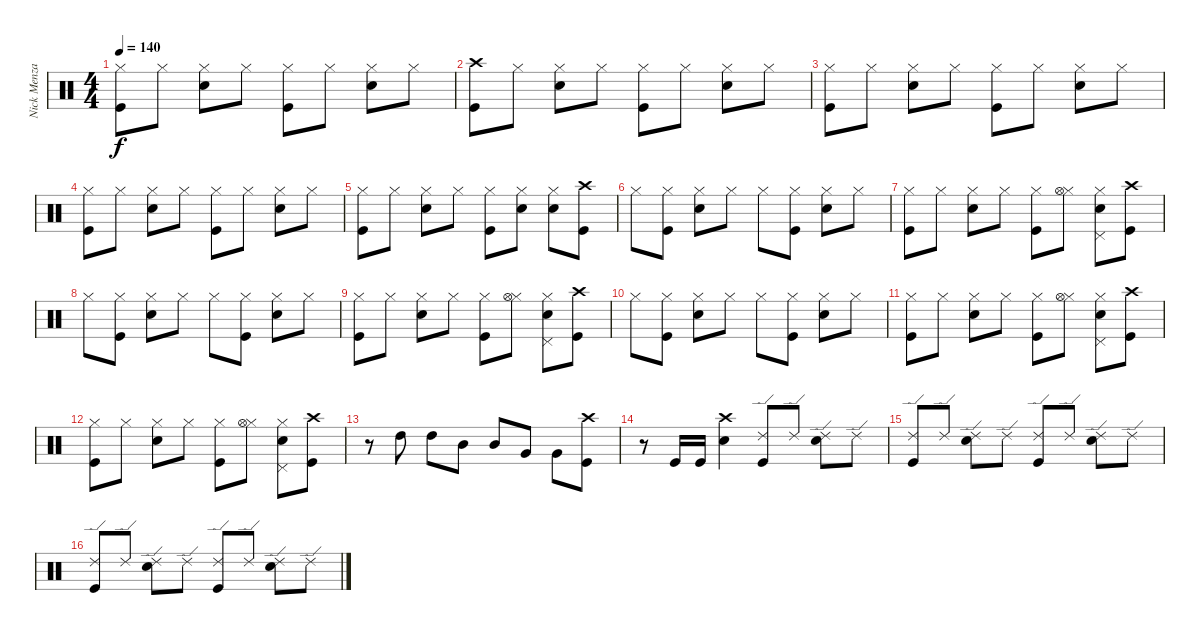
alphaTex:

\track ("Nick Menza (Drums)" "Nick Menza") {instrument percussion}
\staff {score}
\articulation defaults
\ts (4 4)
\tempo 140
\clef neutral
\ks c
("Hi-Hat (closed)" "Kick (hit)").8{dy f} "Hi-Hat (closed)".8 ("Hi-Hat (closed)" "Snare (hit) 2").8 "Hi-Hat (closed)".8 ("Hi-Hat (closed)" "Kick (hit)").8 "Hi-Hat (closed)".8 ("Hi-Hat (closed)" "Snare (hit) 2").8 "Hi-Hat (closed)".8 |
("Crash high (hit)" "Kick (hit)").8 "Hi-Hat (closed)".8 ("Hi-Hat (closed)" "Snare (hit) 2").8 "Hi-Hat (closed)".8 ("Hi-Hat (closed)" "Kick (hit)").8 "Hi-Hat (closed)".8 ("Hi-Hat (closed)" "Snare (hit) 2").8 "Hi-Hat (closed)".8 |
("Hi-Hat (closed)" "Kick (hit)").8 "Hi-Hat (closed)".8 ("Hi-Hat (closed)" "Snare (hit) 2").8 "Hi-Hat (closed)".8 ("Hi-Hat (closed)" "Kick (hit)").8 "Hi-Hat (closed)".8 ("Hi-Hat (closed)" "Snare (hit) 2").8 "Hi-Hat (closed)".8 |
("Hi-Hat (closed)" "Kick (hit)").8 "Hi-Hat (closed)".8 ("Hi-Hat (closed)" "Snare (hit) 2").8 "Hi-Hat (closed)".8 ("Hi-Hat (closed)" "Kick (hit)").8 "Hi-Hat (closed)".8 ("Hi-Hat (closed)" "Snare (hit) 2").8 "Hi-Hat (closed)".8 |
("Hi-Hat (closed)" "Kick (hit)").8 "Hi-Hat (closed)".8 ("Hi-Hat (closed)" "Snare (hit) 2").8 "Hi-Hat (closed)".8 ("Hi-Hat (closed)" "Kick (hit)").8 ("Hi-Hat (closed)" "Snare (hit) 2").8 ("Hi-Hat (closed)" "Snare (hit) 2").8 ("Crash high (hit)" "Kick (hit)").8 |
"Hi-Hat (closed)".8 ("Hi-Hat (closed)" "Kick (hit)").8 ("Hi-Hat (closed)" "Snare (hit) 2").8 "Hi-Hat (closed)".8 "Hi-Hat (closed)".8 ("Hi-Hat (closed)" "Kick (hit)").8 ("Hi-Hat (closed)" "Snare (hit) 2").8 "Hi-Hat (closed)".8 |
("Hi-Hat (closed)" "Kick (hit)").8 "Hi-Hat (closed)".8 ("Hi-Hat (closed)" "Snare (hit) 2").8 "Hi-Hat (closed)".8 ("Hi-Hat (closed)" "Kick (hit)").8 ("Hi-Hat (closed)" "Hi-Hat (open)").8 ("Hi-Hat (closed)" "Snare (hit) 2" "Pedal Hi-Hat (hit)").8 ("Crash high (hit)" "Kick (hit)").8 |
"Hi-Hat (closed)".8 ("Hi-Hat (closed)" "Kick (hit)").8 ("Hi-Hat (closed)" "Snare (hit) 2").8 "Hi-Hat (closed)".8 "Hi-Hat (closed)".8 ("Hi-Hat (closed)" "Kick (hit)").8 ("Hi-Hat (closed)" "Snare (hit) 2").8 "Hi-Hat (closed)".8 |
("Hi-Hat (closed)" "Kick (hit)").8 "Hi-Hat (closed)".8 ("Hi-Hat (closed)" "Snare (hit) 2").8 "Hi-Hat (closed)".8 ("Hi-Hat (closed)" "Kick (hit)").8 ("Hi-Hat (closed)" "Hi-Hat (open)").8 ("Hi-Hat (closed)" "Snare (hit) 2" "Pedal Hi-Hat (hit)").8 ("Crash high (hit)" "Kick (hit)").8 |
"Hi-Hat (closed)".8 ("Hi-Hat (closed)" "Kick (hit)").8 ("Hi-Hat (closed)" "Snare (hit) 2").8 "Hi-Hat (closed)".8 "Hi-Hat (closed)".8 ("Hi-Hat (closed)" "Kick (hit)").8 ("Hi-Hat (closed)" "Snare (hit) 2").8 "Hi-Hat (closed)".8 |
("Hi-Hat (closed)" "Kick (hit)").8 "Hi-Hat (closed)".8 ("Hi-Hat (closed)" "Snare (hit) 2").8 "Hi-Hat (closed)".8 ("Hi-Hat (closed)" "Kick (hit)").8 ("Hi-Hat (closed)" "Hi-Hat (open)").8 ("Hi-Hat (closed)" "Snare (hit) 2" "Pedal Hi-Hat (hit)").8 ("Crash high (hit)" "Kick (hit)").8 |
("Hi-Hat (closed)" "Kick (hit)").8 "Hi-Hat (closed)".8 ("Hi-Hat (closed)" "Snare (hit) 2").8 "Hi-Hat (closed)".8 ("Hi-Hat (closed)" "Kick (hit)").8 ("Hi-Hat (closed)" "Hi-Hat (open)").8 ("Hi-Hat (closed)" "Snare (hit) 2" "Pedal Hi-Hat (hit)").8 ("Crash high (hit)" "Kick (hit)").8 |
r.8 "High Tom (hit)".8 "High Tom (hit)".8 "Mid Tom (hit)".8 "Mid Tom (hit)".8 "Very Low Tom (hit)".8 "Very Low Tom (hit)".8 ("Crash high (hit)" "Kick (hit)").8 |
r.8 "Kick (hit)".16 "Kick (hit)".16 ("Crash high (hit)" "Snare (hit) 2").4 ("Ride (edge) 2" "Kick (hit)").8 "Ride (edge) 2".8 ("Ride (edge) 2" "Snare (hit) 2").8 "Ride (edge) 2".8 |
("Ride (edge) 2" "Kick (hit)").8 "Ride (edge) 2".8 ("Ride (edge) 2" "Snare (hit) 2").8 "Ride (edge) 2".8 ("Ride (edge) 2" "Kick (hit)").8 "Ride (edge) 2".8 ("Ride (edge) 2" "Snare (hit) 2").8 "Ride (edge) 2".8 |
("Ride (edge) 2" "Kick (hit)").8 "Ride (edge) 2".8 ("Ride (edge) 2" "Snare (hit) 2").8 "Ride (edge) 2".8 ("Ride (edge) 2" "Kick (hit)").8 "Ride (edge) 2".8 ("Ride (edge) 2" "Snare (hit) 2").8 "Ride (edge) 2".8
